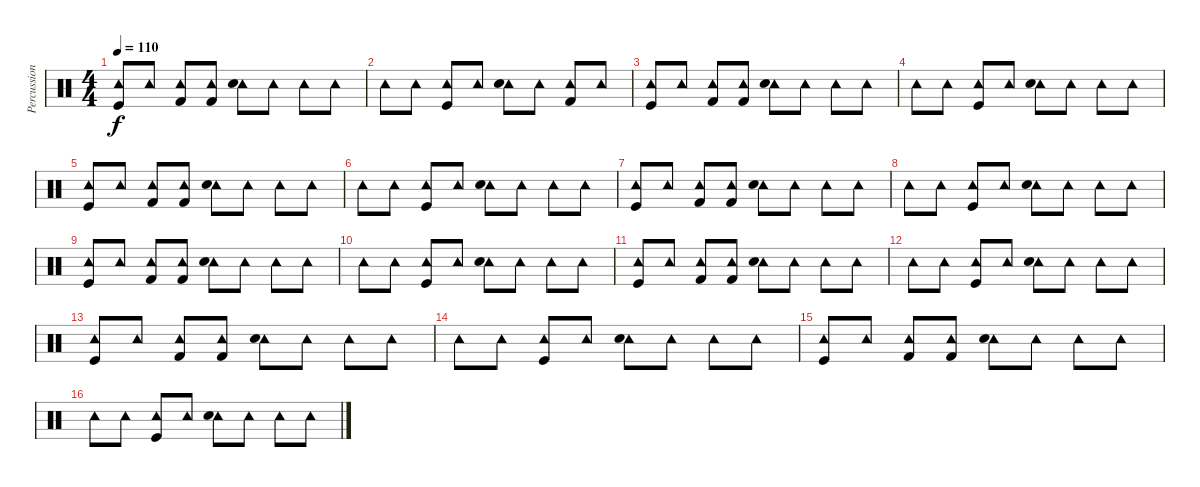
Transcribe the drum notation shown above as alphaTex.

\track ("Percussion" "Percussion") {instrument percussion}
\staff {score}
\articulation defaults
\ts (4 4)
\tempo 110
\clef neutral
\ks c
("Tambourine (hit)" "Kick (hit)").8{dy f} "Tambourine (hit)".8 ("Tambourine (hit)" "Kick (hit) 2").8 ("Tambourine (hit)" "Kick (hit) 2").8 ("Tambourine (hit)" "Snare (hit) 2").8 "Tambourine (hit)".8 "Tambourine (hit)".8 "Tambourine (hit)".8 |
"Tambourine (hit)".8 "Tambourine (hit)".8 ("Tambourine (hit)" "Kick (hit)").8 "Tambourine (hit)".8 ("Tambourine (hit)" "Snare (hit) 2").8 "Tambourine (hit)".8 ("Tambourine (hit)" "Kick (hit) 2").8 "Tambourine (hit)".8 |
("Tambourine (hit)" "Kick (hit)").8 "Tambourine (hit)".8 ("Tambourine (hit)" "Kick (hit) 2").8 ("Tambourine (hit)" "Kick (hit) 2").8 ("Tambourine (hit)" "Snare (hit) 2").8 "Tambourine (hit)".8 "Tambourine (hit)".8 "Tambourine (hit)".8 |
"Tambourine (hit)".8 "Tambourine (hit)".8 ("Tambourine (hit)" "Kick (hit)").8 "Tambourine (hit)".8 ("Tambourine (hit)" "Snare (hit) 2").8 "Tambourine (hit)".8 "Tambourine (hit)".8 "Tambourine (hit)".8 |
("Tambourine (hit)" "Kick (hit)").8 "Tambourine (hit)".8 ("Tambourine (hit)" "Kick (hit) 2").8 ("Tambourine (hit)" "Kick (hit) 2").8 ("Tambourine (hit)" "Snare (hit) 2").8 "Tambourine (hit)".8 "Tambourine (hit)".8 "Tambourine (hit)".8 |
"Tambourine (hit)".8 "Tambourine (hit)".8 ("Tambourine (hit)" "Kick (hit)").8 "Tambourine (hit)".8 ("Tambourine (hit)" "Snare (hit) 2").8 "Tambourine (hit)".8 "Tambourine (hit)".8 "Tambourine (hit)".8 |
("Tambourine (hit)" "Kick (hit)").8 "Tambourine (hit)".8 ("Tambourine (hit)" "Kick (hit) 2").8 ("Tambourine (hit)" "Kick (hit) 2").8 ("Tambourine (hit)" "Snare (hit) 2").8 "Tambourine (hit)".8 "Tambourine (hit)".8 "Tambourine (hit)".8 |
"Tambourine (hit)".8 "Tambourine (hit)".8 ("Tambourine (hit)" "Kick (hit)").8 "Tambourine (hit)".8 ("Tambourine (hit)" "Snare (hit) 2").8 "Tambourine (hit)".8 "Tambourine (hit)".8 "Tambourine (hit)".8 |
("Tambourine (hit)" "Kick (hit)").8 "Tambourine (hit)".8 ("Tambourine (hit)" "Kick (hit) 2").8 ("Tambourine (hit)" "Kick (hit) 2").8 ("Tambourine (hit)" "Snare (hit) 2").8 "Tambourine (hit)".8 "Tambourine (hit)".8 "Tambourine (hit)".8 |
"Tambourine (hit)".8 "Tambourine (hit)".8 ("Tambourine (hit)" "Kick (hit)").8 "Tambourine (hit)".8 ("Tambourine (hit)" "Snare (hit) 2").8 "Tambourine (hit)".8 "Tambourine (hit)".8 "Tambourine (hit)".8 |
("Tambourine (hit)" "Kick (hit)").8 "Tambourine (hit)".8 ("Tambourine (hit)" "Kick (hit) 2").8 ("Tambourine (hit)" "Kick (hit) 2").8 ("Tambourine (hit)" "Snare (hit) 2").8 "Tambourine (hit)".8 "Tambourine (hit)".8 "Tambourine (hit)".8 |
"Tambourine (hit)".8 "Tambourine (hit)".8 ("Tambourine (hit)" "Kick (hit)").8 "Tambourine (hit)".8 ("Tambourine (hit)" "Snare (hit) 2").8 "Tambourine (hit)".8 "Tambourine (hit)".8 "Tambourine (hit)".8 |
("Tambourine (hit)" "Kick (hit)").8 "Tambourine (hit)".8 ("Tambourine (hit)" "Kick (hit) 2").8 ("Tambourine (hit)" "Kick (hit) 2").8 ("Tambourine (hit)" "Snare (hit) 2").8 "Tambourine (hit)".8 "Tambourine (hit)".8 "Tambourine (hit)".8 |
"Tambourine (hit)".8 "Tambourine (hit)".8 ("Tambourine (hit)" "Kick (hit)").8 "Tambourine (hit)".8 ("Tambourine (hit)" "Snare (hit) 2").8 "Tambourine (hit)".8 "Tambourine (hit)".8 "Tambourine (hit)".8 |
("Tambourine (hit)" "Kick (hit)").8 "Tambourine (hit)".8 ("Tambourine (hit)" "Kick (hit) 2").8 ("Tambourine (hit)" "Kick (hit) 2").8 ("Tambourine (hit)" "Snare (hit) 2").8 "Tambourine (hit)".8 "Tambourine (hit)".8 "Tambourine (hit)".8 |
"Tambourine (hit)".8 "Tambourine (hit)".8 ("Tambourine (hit)" "Kick (hit)").8 "Tambourine (hit)".8 ("Tambourine (hit)" "Snare (hit) 2").8 "Tambourine (hit)".8 "Tambourine (hit)".8 "Tambourine (hit)".8
